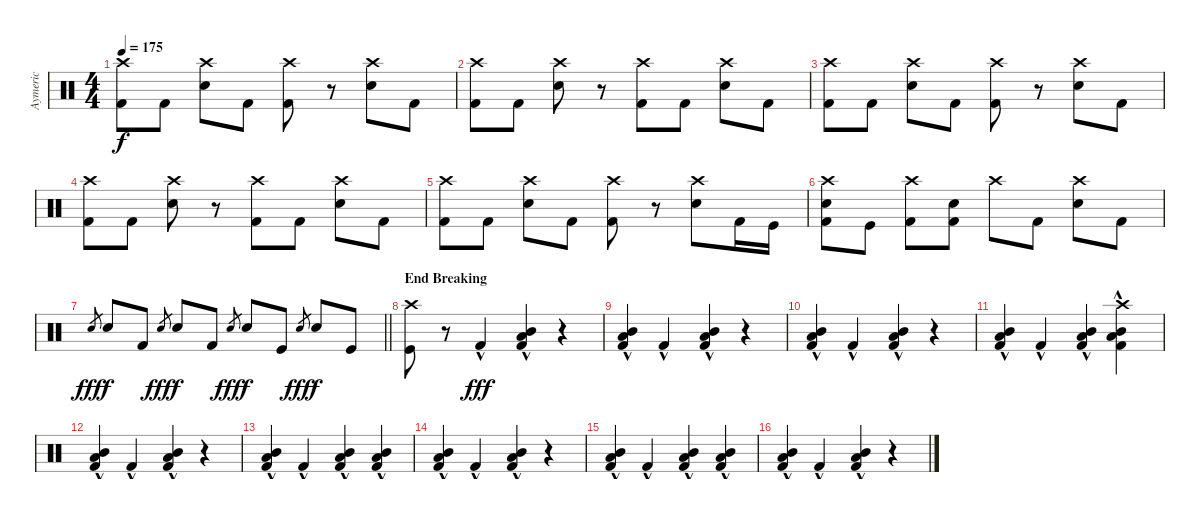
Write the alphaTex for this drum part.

\track ("Aymeric" "Aymeric") {instrument percussion}
\staff {score}
\articulation defaults
\ts (4 4)
\tempo 175
\clef neutral
\ks c
("Crash high (hit)" "Kick (hit) 2").8{dy f} "Kick (hit) 2".8 ("Crash high (hit)" "Snare (hit) 2").8 "Kick (hit) 2".8 ("Crash high (hit)" "Kick (hit) 2").8 r.8 ("Crash high (hit)" "Snare (hit) 2").8 "Kick (hit) 2".8 |
("Crash high (hit)" "Kick (hit) 2").8 "Kick (hit) 2".8 ("Crash high (hit)" "Snare (hit) 2").8 r.8 ("Crash high (hit)" "Kick (hit) 2").8 "Kick (hit) 2".8 ("Crash high (hit)" "Snare (hit) 2").8 "Kick (hit) 2".8 |
("Crash high (hit)" "Kick (hit) 2").8 "Kick (hit) 2".8 ("Crash high (hit)" "Snare (hit) 2").8 "Kick (hit) 2".8 ("Crash high (hit)" "Kick (hit) 2").8 r.8 ("Crash high (hit)" "Snare (hit) 2").8 "Kick (hit) 2".8 |
("Crash high (hit)" "Kick (hit) 2").8 "Kick (hit) 2".8 ("Crash high (hit)" "Snare (hit) 2").8 r.8 ("Crash high (hit)" "Kick (hit) 2").8 "Kick (hit) 2".8 ("Crash high (hit)" "Snare (hit) 2").8 "Kick (hit) 2".8 |
("Crash high (hit)" "Kick (hit) 2").8 "Kick (hit) 2".8 ("Crash high (hit)" "Snare (hit) 2").8 "Kick (hit) 2".8 ("Crash high (hit)" "Kick (hit) 2").8 r.8 ("Crash high (hit)" "Snare (hit) 2").8 "Kick (hit) 2".16 "Kick (hit)".16 |
("Crash high (hit)" "Snare (hit) 2" "Kick (hit) 2").8 "Kick (hit)".8 ("Crash high (hit)" "Kick (hit) 2").8 ("Snare (hit) 2" "Kick (hit) 2").8 "Crash high (hit)".8 "Kick (hit) 2".8 ("Crash high (hit)" "Snare (hit) 2").8 "Kick (hit) 2".8 |
\barLineRight lightlight "Snare (hit) 2".8{gr dy fff} "Snare (hit) 2".8{dy f} "Kick (hit) 2".8 "Snare (hit) 2".8{gr dy fff} "Snare (hit) 2".8{dy f} "Kick (hit) 2".8 "Snare (hit) 2".8{gr dy fff} "Snare (hit) 2".8{dy f} "Kick (hit)".8 "Snare (hit) 2".8{gr dy fff} "Snare (hit) 2".8{dy f} "Kick (hit)".8
|
\section ("" "End Breaking")
("Crash high (hit)" "Kick (hit)").8 r.8 "Kick (hit) 2"{hac}.4{dy fff} ("Mid Tom (hit)"{hac} "Low Floor Tom (hit)"{hac} "Kick (hit) 2"{hac}).4 r.4 |
("Mid Tom (hit)"{hac} "Low Floor Tom (hit)"{hac} "Kick (hit) 2"{hac}).4 "Kick (hit) 2"{hac}.4 ("Mid Tom (hit)"{hac} "Low Floor Tom (hit)"{hac} "Kick (hit) 2"{hac}).4 r.4 |
("Mid Tom (hit)"{hac} "Low Floor Tom (hit)"{hac} "Kick (hit) 2"{hac}).4 "Kick (hit) 2"{hac}.4 ("Mid Tom (hit)"{hac} "Low Floor Tom (hit)"{hac} "Kick (hit) 2"{hac}).4 r.4 |
("Mid Tom (hit)"{hac} "Low Floor Tom (hit)"{hac} "Kick (hit) 2"{hac}).4 "Kick (hit) 2"{hac}.4 ("Mid Tom (hit)"{hac} "Low Floor Tom (hit)"{hac} "Kick (hit) 2"{hac}).4 ("Crash high (hit)" "Mid Tom (hit)"{hac} "Low Floor Tom (hit)"{hac} "Kick (hit) 2"{hac}).4 |
("Mid Tom (hit)"{hac} "Low Floor Tom (hit)"{hac} "Kick (hit) 2"{hac}).4 "Kick (hit) 2"{hac}.4 ("Mid Tom (hit)"{hac} "Low Floor Tom (hit)"{hac} "Kick (hit) 2"{hac}).4 r.4 |
("Mid Tom (hit)"{hac} "Low Floor Tom (hit)"{hac} "Kick (hit) 2"{hac}).4 "Kick (hit) 2"{hac}.4 ("Mid Tom (hit)"{hac} "Low Floor Tom (hit)"{hac} "Kick (hit) 2"{hac}).4 ("Mid Tom (hit)"{hac} "Low Floor Tom (hit)"{hac} "Kick (hit) 2"{hac}).4 |
("Mid Tom (hit)"{hac} "Low Floor Tom (hit)"{hac} "Kick (hit) 2"{hac}).4 "Kick (hit) 2"{hac}.4 ("Mid Tom (hit)"{hac} "Low Floor Tom (hit)"{hac} "Kick (hit) 2"{hac}).4 r.4 |
("Mid Tom (hit)"{hac} "Low Floor Tom (hit)"{hac} "Kick (hit) 2"{hac}).4 "Kick (hit) 2"{hac}.4 ("Mid Tom (hit)"{hac} "Low Floor Tom (hit)"{hac} "Kick (hit) 2"{hac}).4 ("Mid Tom (hit)"{hac} "Low Floor Tom (hit)"{hac} "Kick (hit) 2"{hac}).4 |
("Mid Tom (hit)"{hac} "Low Floor Tom (hit)"{hac} "Kick (hit) 2"{hac}).4 "Kick (hit) 2"{hac}.4 ("Mid Tom (hit)"{hac} "Low Floor Tom (hit)"{hac} "Kick (hit) 2"{hac}).4 r.4
